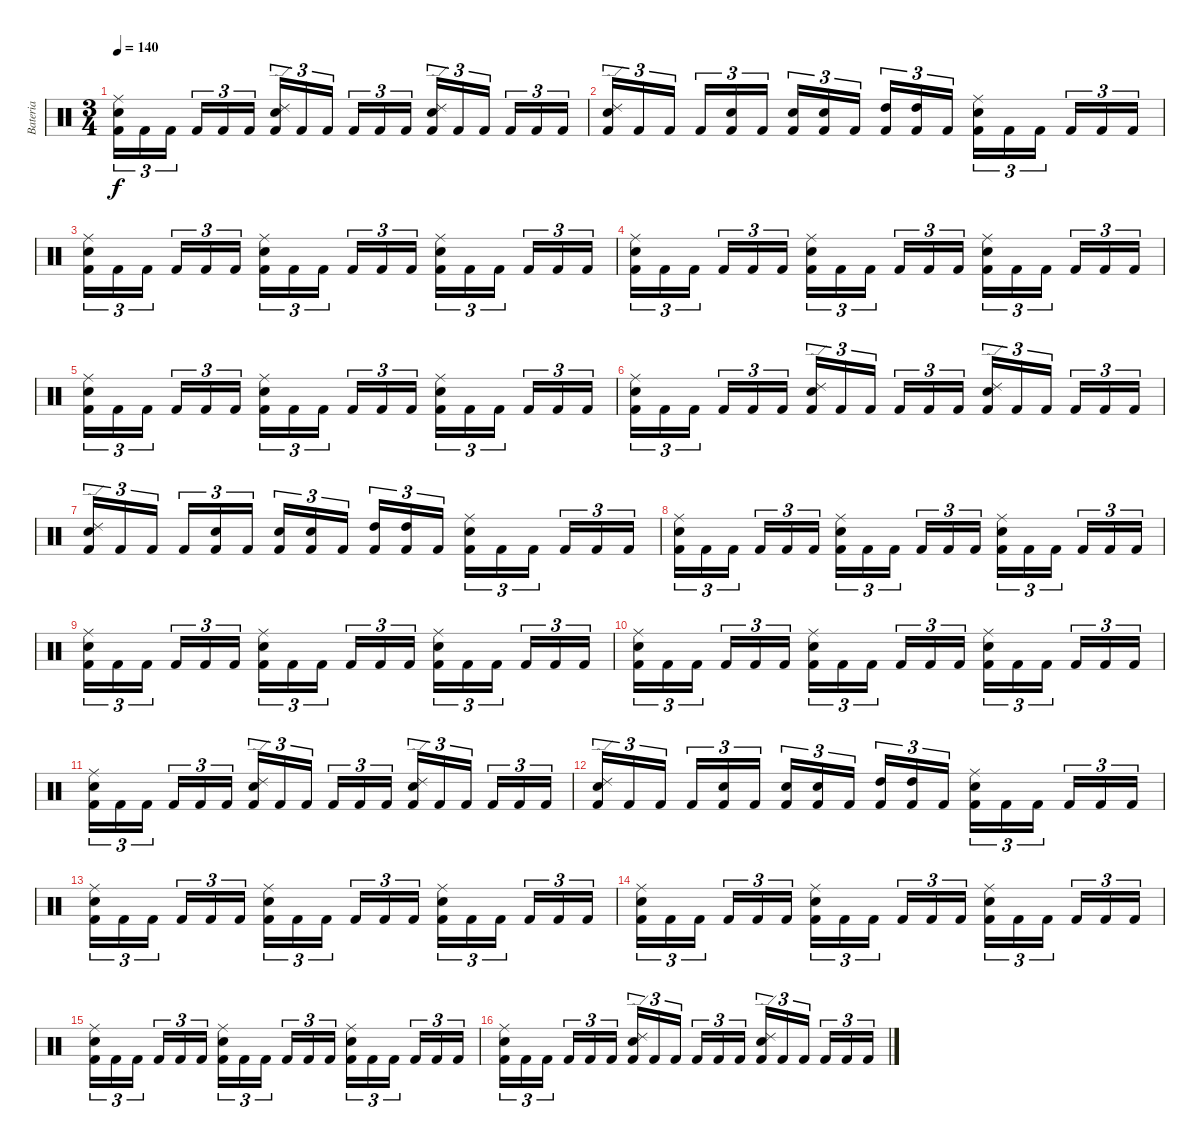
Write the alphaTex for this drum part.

\track ("Bateria" "Bateria") {instrument percussion}
\staff {score}
\articulation defaults
\ts (3 4)
\tempo 140
\clef neutral
\ks c
("Kick (hit) 2" "Electric Snare (hit)" "Ride (middle)").16{tu (3 2) dy f} "Kick (hit) 2".16{tu (3 2)} "Kick (hit) 2".16{tu (3 2)} "Kick (hit) 2".16{tu (3 2)} "Kick (hit) 2".16{tu (3 2)} "Kick (hit) 2".16{tu (3 2)} ("Kick (hit) 2" "Electric Snare (hit)" "Ride (edge) 2").16{tu (3 2)} "Kick (hit) 2".16{tu (3 2)} "Kick (hit) 2".16{tu (3 2)} "Kick (hit) 2".16{tu (3 2)} "Kick (hit) 2".16{tu (3 2)} "Kick (hit) 2".16{tu (3 2)} ("Kick (hit) 2" "Electric Snare (hit)" "Ride (edge) 2").16{tu (3 2)} "Kick (hit) 2".16{tu (3 2)} "Kick (hit) 2".16{tu (3 2)} "Kick (hit) 2".16{tu (3 2)} "Kick (hit) 2".16{tu (3 2)} "Kick (hit) 2".16{tu (3 2)} |
("Kick (hit) 2" "Electric Snare (hit)" "Ride (edge) 2").16{tu (3 2)} "Kick (hit) 2".16{tu (3 2)} "Kick (hit) 2".16{tu (3 2)} "Kick (hit) 2".16{tu (3 2)} ("Kick (hit) 2" "Electric Snare (hit)").16{tu (3 2)} "Kick (hit) 2".16{tu (3 2)} ("Kick (hit) 2" "Electric Snare (hit)").16{tu (3 2)} ("Kick (hit) 2" "Electric Snare (hit)").16{tu (3 2)} "Kick (hit) 2".16{tu (3 2)} ("Kick (hit) 2" "High Tom (hit)").16{tu (3 2)} ("Kick (hit) 2" "High Tom (hit)").16{tu (3 2)} "Kick (hit) 2".16{tu (3 2)} ("Kick (hit) 2" "Electric Snare (hit)" "Ride (middle)").16{tu (3 2)} "Kick (hit) 2".16{tu (3 2)} "Kick (hit) 2".16{tu (3 2)} "Kick (hit) 2".16{tu (3 2)} "Kick (hit) 2".16{tu (3 2)} "Kick (hit) 2".16{tu (3 2)} |
("Kick (hit) 2" "Electric Snare (hit)" "Ride (middle)").16{tu (3 2)} "Kick (hit) 2".16{tu (3 2)} "Kick (hit) 2".16{tu (3 2)} "Kick (hit) 2".16{tu (3 2)} "Kick (hit) 2".16{tu (3 2)} "Kick (hit) 2".16{tu (3 2)} ("Kick (hit) 2" "Electric Snare (hit)" "Ride (middle)").16{tu (3 2)} "Kick (hit) 2".16{tu (3 2)} "Kick (hit) 2".16{tu (3 2)} "Kick (hit) 2".16{tu (3 2)} "Kick (hit) 2".16{tu (3 2)} "Kick (hit) 2".16{tu (3 2)} ("Kick (hit) 2" "Electric Snare (hit)" "Ride (middle)").16{tu (3 2)} "Kick (hit) 2".16{tu (3 2)} "Kick (hit) 2".16{tu (3 2)} "Kick (hit) 2".16{tu (3 2)} "Kick (hit) 2".16{tu (3 2)} "Kick (hit) 2".16{tu (3 2)} |
("Kick (hit) 2" "Electric Snare (hit)" "Ride (middle)").16{tu (3 2)} "Kick (hit) 2".16{tu (3 2)} "Kick (hit) 2".16{tu (3 2)} "Kick (hit) 2".16{tu (3 2)} "Kick (hit) 2".16{tu (3 2)} "Kick (hit) 2".16{tu (3 2)} ("Kick (hit) 2" "Electric Snare (hit)" "Ride (middle)").16{tu (3 2)} "Kick (hit) 2".16{tu (3 2)} "Kick (hit) 2".16{tu (3 2)} "Kick (hit) 2".16{tu (3 2)} "Kick (hit) 2".16{tu (3 2)} "Kick (hit) 2".16{tu (3 2)} ("Kick (hit) 2" "Electric Snare (hit)" "Ride (middle)").16{tu (3 2)} "Kick (hit) 2".16{tu (3 2)} "Kick (hit) 2".16{tu (3 2)} "Kick (hit) 2".16{tu (3 2)} "Kick (hit) 2".16{tu (3 2)} "Kick (hit) 2".16{tu (3 2)} |
("Kick (hit) 2" "Electric Snare (hit)" "Ride (middle)").16{tu (3 2)} "Kick (hit) 2".16{tu (3 2)} "Kick (hit) 2".16{tu (3 2)} "Kick (hit) 2".16{tu (3 2)} "Kick (hit) 2".16{tu (3 2)} "Kick (hit) 2".16{tu (3 2)} ("Kick (hit) 2" "Electric Snare (hit)" "Ride (middle)").16{tu (3 2)} "Kick (hit) 2".16{tu (3 2)} "Kick (hit) 2".16{tu (3 2)} "Kick (hit) 2".16{tu (3 2)} "Kick (hit) 2".16{tu (3 2)} "Kick (hit) 2".16{tu (3 2)} ("Kick (hit) 2" "Electric Snare (hit)" "Ride (middle)").16{tu (3 2)} "Kick (hit) 2".16{tu (3 2)} "Kick (hit) 2".16{tu (3 2)} "Kick (hit) 2".16{tu (3 2)} "Kick (hit) 2".16{tu (3 2)} "Kick (hit) 2".16{tu (3 2)} |
("Kick (hit) 2" "Electric Snare (hit)" "Ride (middle)").16{tu (3 2)} "Kick (hit) 2".16{tu (3 2)} "Kick (hit) 2".16{tu (3 2)} "Kick (hit) 2".16{tu (3 2)} "Kick (hit) 2".16{tu (3 2)} "Kick (hit) 2".16{tu (3 2)} ("Kick (hit) 2" "Electric Snare (hit)" "Ride (edge) 2").16{tu (3 2)} "Kick (hit) 2".16{tu (3 2)} "Kick (hit) 2".16{tu (3 2)} "Kick (hit) 2".16{tu (3 2)} "Kick (hit) 2".16{tu (3 2)} "Kick (hit) 2".16{tu (3 2)} ("Kick (hit) 2" "Electric Snare (hit)" "Ride (edge) 2").16{tu (3 2)} "Kick (hit) 2".16{tu (3 2)} "Kick (hit) 2".16{tu (3 2)} "Kick (hit) 2".16{tu (3 2)} "Kick (hit) 2".16{tu (3 2)} "Kick (hit) 2".16{tu (3 2)} |
("Kick (hit) 2" "Electric Snare (hit)" "Ride (edge) 2").16{tu (3 2)} "Kick (hit) 2".16{tu (3 2)} "Kick (hit) 2".16{tu (3 2)} "Kick (hit) 2".16{tu (3 2)} ("Kick (hit) 2" "Electric Snare (hit)").16{tu (3 2)} "Kick (hit) 2".16{tu (3 2)} ("Kick (hit) 2" "Electric Snare (hit)").16{tu (3 2)} ("Kick (hit) 2" "Electric Snare (hit)").16{tu (3 2)} "Kick (hit) 2".16{tu (3 2)} ("Kick (hit) 2" "High Tom (hit)").16{tu (3 2)} ("Kick (hit) 2" "High Tom (hit)").16{tu (3 2)} "Kick (hit) 2".16{tu (3 2)} ("Kick (hit) 2" "Electric Snare (hit)" "Ride (middle)").16{tu (3 2)} "Kick (hit) 2".16{tu (3 2)} "Kick (hit) 2".16{tu (3 2)} "Kick (hit) 2".16{tu (3 2)} "Kick (hit) 2".16{tu (3 2)} "Kick (hit) 2".16{tu (3 2)} |
("Kick (hit) 2" "Electric Snare (hit)" "Ride (middle)").16{tu (3 2)} "Kick (hit) 2".16{tu (3 2)} "Kick (hit) 2".16{tu (3 2)} "Kick (hit) 2".16{tu (3 2)} "Kick (hit) 2".16{tu (3 2)} "Kick (hit) 2".16{tu (3 2)} ("Kick (hit) 2" "Electric Snare (hit)" "Ride (middle)").16{tu (3 2)} "Kick (hit) 2".16{tu (3 2)} "Kick (hit) 2".16{tu (3 2)} "Kick (hit) 2".16{tu (3 2)} "Kick (hit) 2".16{tu (3 2)} "Kick (hit) 2".16{tu (3 2)} ("Kick (hit) 2" "Electric Snare (hit)" "Ride (middle)").16{tu (3 2)} "Kick (hit) 2".16{tu (3 2)} "Kick (hit) 2".16{tu (3 2)} "Kick (hit) 2".16{tu (3 2)} "Kick (hit) 2".16{tu (3 2)} "Kick (hit) 2".16{tu (3 2)} |
("Kick (hit) 2" "Electric Snare (hit)" "Ride (middle)").16{tu (3 2)} "Kick (hit) 2".16{tu (3 2)} "Kick (hit) 2".16{tu (3 2)} "Kick (hit) 2".16{tu (3 2)} "Kick (hit) 2".16{tu (3 2)} "Kick (hit) 2".16{tu (3 2)} ("Kick (hit) 2" "Electric Snare (hit)" "Ride (middle)").16{tu (3 2)} "Kick (hit) 2".16{tu (3 2)} "Kick (hit) 2".16{tu (3 2)} "Kick (hit) 2".16{tu (3 2)} "Kick (hit) 2".16{tu (3 2)} "Kick (hit) 2".16{tu (3 2)} ("Kick (hit) 2" "Electric Snare (hit)" "Ride (middle)").16{tu (3 2)} "Kick (hit) 2".16{tu (3 2)} "Kick (hit) 2".16{tu (3 2)} "Kick (hit) 2".16{tu (3 2)} "Kick (hit) 2".16{tu (3 2)} "Kick (hit) 2".16{tu (3 2)} |
("Kick (hit) 2" "Electric Snare (hit)" "Ride (middle)").16{tu (3 2)} "Kick (hit) 2".16{tu (3 2)} "Kick (hit) 2".16{tu (3 2)} "Kick (hit) 2".16{tu (3 2)} "Kick (hit) 2".16{tu (3 2)} "Kick (hit) 2".16{tu (3 2)} ("Kick (hit) 2" "Electric Snare (hit)" "Ride (middle)").16{tu (3 2)} "Kick (hit) 2".16{tu (3 2)} "Kick (hit) 2".16{tu (3 2)} "Kick (hit) 2".16{tu (3 2)} "Kick (hit) 2".16{tu (3 2)} "Kick (hit) 2".16{tu (3 2)} ("Kick (hit) 2" "Electric Snare (hit)" "Ride (middle)").16{tu (3 2)} "Kick (hit) 2".16{tu (3 2)} "Kick (hit) 2".16{tu (3 2)} "Kick (hit) 2".16{tu (3 2)} "Kick (hit) 2".16{tu (3 2)} "Kick (hit) 2".16{tu (3 2)} |
("Kick (hit) 2" "Electric Snare (hit)" "Ride (middle)").16{tu (3 2)} "Kick (hit) 2".16{tu (3 2)} "Kick (hit) 2".16{tu (3 2)} "Kick (hit) 2".16{tu (3 2)} "Kick (hit) 2".16{tu (3 2)} "Kick (hit) 2".16{tu (3 2)} ("Kick (hit) 2" "Electric Snare (hit)" "Ride (edge) 2").16{tu (3 2)} "Kick (hit) 2".16{tu (3 2)} "Kick (hit) 2".16{tu (3 2)} "Kick (hit) 2".16{tu (3 2)} "Kick (hit) 2".16{tu (3 2)} "Kick (hit) 2".16{tu (3 2)} ("Kick (hit) 2" "Electric Snare (hit)" "Ride (edge) 2").16{tu (3 2)} "Kick (hit) 2".16{tu (3 2)} "Kick (hit) 2".16{tu (3 2)} "Kick (hit) 2".16{tu (3 2)} "Kick (hit) 2".16{tu (3 2)} "Kick (hit) 2".16{tu (3 2)} |
("Kick (hit) 2" "Electric Snare (hit)" "Ride (edge) 2").16{tu (3 2)} "Kick (hit) 2".16{tu (3 2)} "Kick (hit) 2".16{tu (3 2)} "Kick (hit) 2".16{tu (3 2)} ("Kick (hit) 2" "Electric Snare (hit)").16{tu (3 2)} "Kick (hit) 2".16{tu (3 2)} ("Kick (hit) 2" "Electric Snare (hit)").16{tu (3 2)} ("Kick (hit) 2" "Electric Snare (hit)").16{tu (3 2)} "Kick (hit) 2".16{tu (3 2)} ("Kick (hit) 2" "High Tom (hit)").16{tu (3 2)} ("Kick (hit) 2" "High Tom (hit)").16{tu (3 2)} "Kick (hit) 2".16{tu (3 2)} ("Kick (hit) 2" "Electric Snare (hit)" "Ride (middle)").16{tu (3 2)} "Kick (hit) 2".16{tu (3 2)} "Kick (hit) 2".16{tu (3 2)} "Kick (hit) 2".16{tu (3 2)} "Kick (hit) 2".16{tu (3 2)} "Kick (hit) 2".16{tu (3 2)} |
("Kick (hit) 2" "Electric Snare (hit)" "Ride (middle)").16{tu (3 2)} "Kick (hit) 2".16{tu (3 2)} "Kick (hit) 2".16{tu (3 2)} "Kick (hit) 2".16{tu (3 2)} "Kick (hit) 2".16{tu (3 2)} "Kick (hit) 2".16{tu (3 2)} ("Kick (hit) 2" "Electric Snare (hit)" "Ride (middle)").16{tu (3 2)} "Kick (hit) 2".16{tu (3 2)} "Kick (hit) 2".16{tu (3 2)} "Kick (hit) 2".16{tu (3 2)} "Kick (hit) 2".16{tu (3 2)} "Kick (hit) 2".16{tu (3 2)} ("Kick (hit) 2" "Electric Snare (hit)" "Ride (middle)").16{tu (3 2)} "Kick (hit) 2".16{tu (3 2)} "Kick (hit) 2".16{tu (3 2)} "Kick (hit) 2".16{tu (3 2)} "Kick (hit) 2".16{tu (3 2)} "Kick (hit) 2".16{tu (3 2)} |
("Kick (hit) 2" "Electric Snare (hit)" "Ride (middle)").16{tu (3 2)} "Kick (hit) 2".16{tu (3 2)} "Kick (hit) 2".16{tu (3 2)} "Kick (hit) 2".16{tu (3 2)} "Kick (hit) 2".16{tu (3 2)} "Kick (hit) 2".16{tu (3 2)} ("Kick (hit) 2" "Electric Snare (hit)" "Ride (middle)").16{tu (3 2)} "Kick (hit) 2".16{tu (3 2)} "Kick (hit) 2".16{tu (3 2)} "Kick (hit) 2".16{tu (3 2)} "Kick (hit) 2".16{tu (3 2)} "Kick (hit) 2".16{tu (3 2)} ("Kick (hit) 2" "Electric Snare (hit)" "Ride (middle)").16{tu (3 2)} "Kick (hit) 2".16{tu (3 2)} "Kick (hit) 2".16{tu (3 2)} "Kick (hit) 2".16{tu (3 2)} "Kick (hit) 2".16{tu (3 2)} "Kick (hit) 2".16{tu (3 2)} |
("Kick (hit) 2" "Electric Snare (hit)" "Ride (middle)").16{tu (3 2)} "Kick (hit) 2".16{tu (3 2)} "Kick (hit) 2".16{tu (3 2)} "Kick (hit) 2".16{tu (3 2)} "Kick (hit) 2".16{tu (3 2)} "Kick (hit) 2".16{tu (3 2)} ("Kick (hit) 2" "Electric Snare (hit)" "Ride (middle)").16{tu (3 2)} "Kick (hit) 2".16{tu (3 2)} "Kick (hit) 2".16{tu (3 2)} "Kick (hit) 2".16{tu (3 2)} "Kick (hit) 2".16{tu (3 2)} "Kick (hit) 2".16{tu (3 2)} ("Kick (hit) 2" "Electric Snare (hit)" "Ride (middle)").16{tu (3 2)} "Kick (hit) 2".16{tu (3 2)} "Kick (hit) 2".16{tu (3 2)} "Kick (hit) 2".16{tu (3 2)} "Kick (hit) 2".16{tu (3 2)} "Kick (hit) 2".16{tu (3 2)} |
("Kick (hit) 2" "Electric Snare (hit)" "Ride (middle)").16{tu (3 2)} "Kick (hit) 2".16{tu (3 2)} "Kick (hit) 2".16{tu (3 2)} "Kick (hit) 2".16{tu (3 2)} "Kick (hit) 2".16{tu (3 2)} "Kick (hit) 2".16{tu (3 2)} ("Kick (hit) 2" "Electric Snare (hit)" "Ride (edge) 2").16{tu (3 2)} "Kick (hit) 2".16{tu (3 2)} "Kick (hit) 2".16{tu (3 2)} "Kick (hit) 2".16{tu (3 2)} "Kick (hit) 2".16{tu (3 2)} "Kick (hit) 2".16{tu (3 2)} ("Kick (hit) 2" "Electric Snare (hit)" "Ride (edge) 2").16{tu (3 2)} "Kick (hit) 2".16{tu (3 2)} "Kick (hit) 2".16{tu (3 2)} "Kick (hit) 2".16{tu (3 2)} "Kick (hit) 2".16{tu (3 2)} "Kick (hit) 2".16{tu (3 2)}
